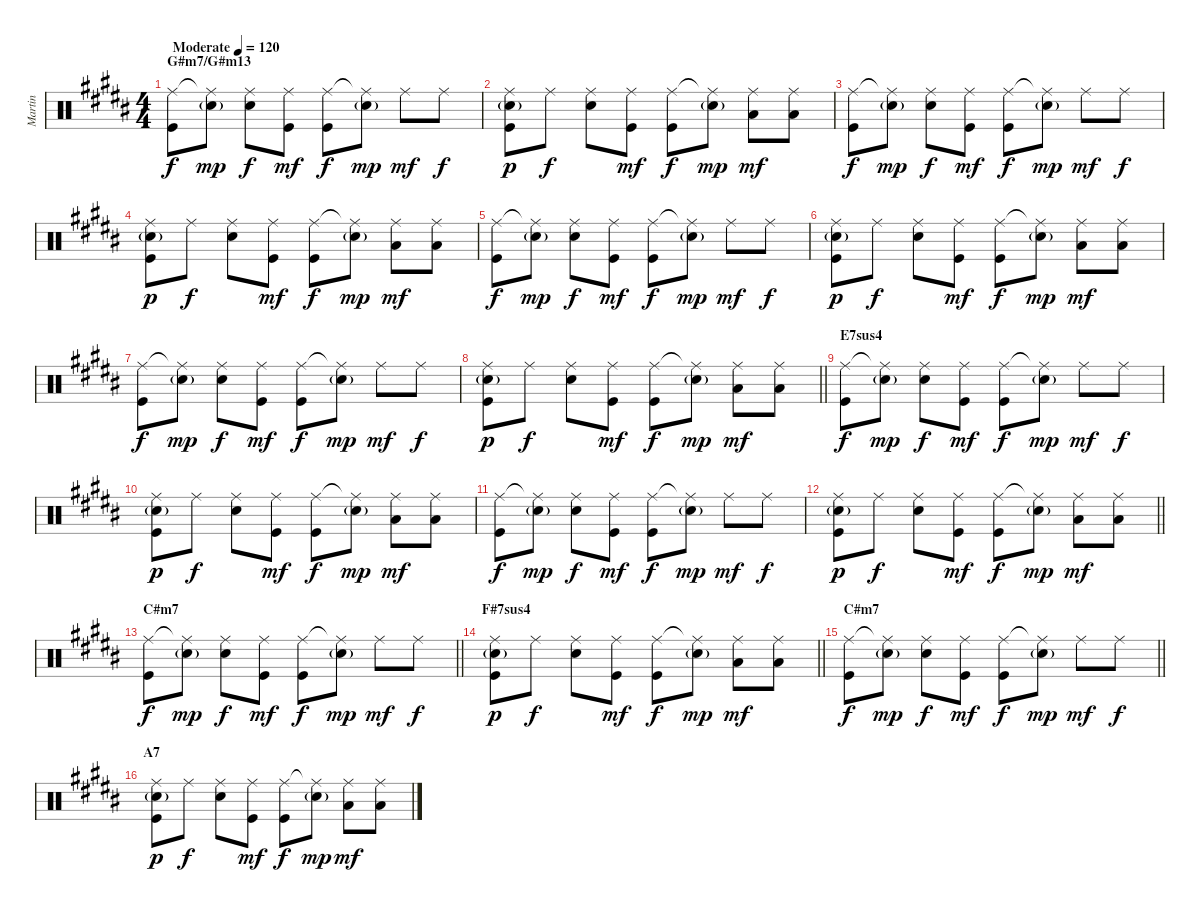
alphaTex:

\track ("Martin" "Martin") {instrument percussion}
\staff {score}
\articulation defaults
\ts (4 4)
\section ("" "G#m7/G#m13")
\tempo (120 "Moderate")
\clef neutral
\ks g#minor
("Ride (middle)" "Kick (hit)").8{dy f} ("Ride (middle)"{t} "Electric Snare (hit)"{g}).8{dy mp} ("Ride (middle)" "Electric Snare (hit)").8{dy f} ("Ride (middle)" "Kick (hit)").8{dy mf} ("Ride (middle)" "Kick (hit)").8{dy f} ("Ride (middle)"{t} "Electric Snare (hit)"{g}).8{dy mp} "Ride (middle)".8{dy mf} "Ride (middle)".8{dy f} |
("Ride (middle)" "Electric Snare (hit)"{g} "Kick (hit)").8{dy p} "Ride (middle)".8{dy f} ("Ride (middle)" "Electric Snare (hit)").8 ("Ride (middle)" "Kick (hit)").8{dy mf} ("Ride (middle)" "Kick (hit)").8{dy f} ("Ride (middle)"{t} "Electric Snare (hit)"{g}).8{dy mp} ("Ride (middle)" "Low Tom (hit)").8{dy mf} ("Ride (middle)" "Low Tom (hit)").8 |
("Ride (middle)" "Kick (hit)").8{dy f} ("Ride (middle)"{t} "Electric Snare (hit)"{g}).8{dy mp} ("Ride (middle)" "Electric Snare (hit)").8{dy f} ("Ride (middle)" "Kick (hit)").8{dy mf} ("Ride (middle)" "Kick (hit)").8{dy f} ("Ride (middle)"{t} "Electric Snare (hit)"{g}).8{dy mp} "Ride (middle)".8{dy mf} "Ride (middle)".8{dy f} |
("Ride (middle)" "Electric Snare (hit)"{g} "Kick (hit)").8{dy p} "Ride (middle)".8{dy f} ("Ride (middle)" "Electric Snare (hit)").8 ("Ride (middle)" "Kick (hit)").8{dy mf} ("Ride (middle)" "Kick (hit)").8{dy f} ("Ride (middle)"{t} "Electric Snare (hit)"{g}).8{dy mp} ("Ride (middle)" "Low Tom (hit)").8{dy mf} ("Ride (middle)" "Low Tom (hit)").8 |
("Ride (middle)" "Kick (hit)").8{dy f} ("Ride (middle)"{t} "Electric Snare (hit)"{g}).8{dy mp} ("Ride (middle)" "Electric Snare (hit)").8{dy f} ("Ride (middle)" "Kick (hit)").8{dy mf} ("Ride (middle)" "Kick (hit)").8{dy f} ("Ride (middle)"{t} "Electric Snare (hit)"{g}).8{dy mp} "Ride (middle)".8{dy mf} "Ride (middle)".8{dy f} |
("Ride (middle)" "Electric Snare (hit)"{g} "Kick (hit)").8{dy p} "Ride (middle)".8{dy f} ("Ride (middle)" "Electric Snare (hit)").8 ("Ride (middle)" "Kick (hit)").8{dy mf} ("Ride (middle)" "Kick (hit)").8{dy f} ("Ride (middle)"{t} "Electric Snare (hit)"{g}).8{dy mp} ("Ride (middle)" "Low Tom (hit)").8{dy mf} ("Ride (middle)" "Low Tom (hit)").8 |
("Ride (middle)" "Kick (hit)").8{dy f} ("Ride (middle)"{t} "Electric Snare (hit)"{g}).8{dy mp} ("Ride (middle)" "Electric Snare (hit)").8{dy f} ("Ride (middle)" "Kick (hit)").8{dy mf} ("Ride (middle)" "Kick (hit)").8{dy f} ("Ride (middle)"{t} "Electric Snare (hit)"{g}).8{dy mp} "Ride (middle)".8{dy mf} "Ride (middle)".8{dy f} |
\barLineRight lightlight
("Ride (middle)" "Electric Snare (hit)"{g} "Kick (hit)").8{dy p} "Ride (middle)".8{dy f} ("Ride (middle)" "Electric Snare (hit)").8 ("Ride (middle)" "Kick (hit)").8{dy mf} ("Ride (middle)" "Kick (hit)").8{dy f} ("Ride (middle)"{t} "Electric Snare (hit)"{g}).8{dy mp} ("Ride (middle)" "Low Tom (hit)").8{dy mf} ("Ride (middle)" "Low Tom (hit)").8 |
\section ("" "E7sus4")
("Ride (middle)" "Kick (hit)").8{dy f} ("Ride (middle)"{t} "Electric Snare (hit)"{g}).8{dy mp} ("Ride (middle)" "Electric Snare (hit)").8{dy f} ("Ride (middle)" "Kick (hit)").8{dy mf} ("Ride (middle)" "Kick (hit)").8{dy f} ("Ride (middle)"{t} "Electric Snare (hit)"{g}).8{dy mp} "Ride (middle)".8{dy mf} "Ride (middle)".8{dy f} |
("Ride (middle)" "Electric Snare (hit)"{g} "Kick (hit)").8{dy p} "Ride (middle)".8{dy f} ("Ride (middle)" "Electric Snare (hit)").8 ("Ride (middle)" "Kick (hit)").8{dy mf} ("Ride (middle)" "Kick (hit)").8{dy f} ("Ride (middle)"{t} "Electric Snare (hit)"{g}).8{dy mp} ("Ride (middle)" "Low Tom (hit)").8{dy mf} ("Ride (middle)" "Low Tom (hit)").8 |
("Ride (middle)" "Kick (hit)").8{dy f} ("Ride (middle)"{t} "Electric Snare (hit)"{g}).8{dy mp} ("Ride (middle)" "Electric Snare (hit)").8{dy f} ("Ride (middle)" "Kick (hit)").8{dy mf} ("Ride (middle)" "Kick (hit)").8{dy f} ("Ride (middle)"{t} "Electric Snare (hit)"{g}).8{dy mp} "Ride (middle)".8{dy mf} "Ride (middle)".8{dy f} |
\barLineRight lightlight
("Ride (middle)" "Electric Snare (hit)"{g} "Kick (hit)").8{dy p} "Ride (middle)".8{dy f} ("Ride (middle)" "Electric Snare (hit)").8 ("Ride (middle)" "Kick (hit)").8{dy mf} ("Ride (middle)" "Kick (hit)").8{dy f} ("Ride (middle)"{t} "Electric Snare (hit)"{g}).8{dy mp} ("Ride (middle)" "Low Tom (hit)").8{dy mf} ("Ride (middle)" "Low Tom (hit)").8 |
\section ("" "C#m7")
\barLineRight lightlight
("Ride (middle)" "Kick (hit)").8{dy f} ("Ride (middle)"{t} "Electric Snare (hit)"{g}).8{dy mp} ("Ride (middle)" "Electric Snare (hit)").8{dy f} ("Ride (middle)" "Kick (hit)").8{dy mf} ("Ride (middle)" "Kick (hit)").8{dy f} ("Ride (middle)"{t} "Electric Snare (hit)"{g}).8{dy mp} "Ride (middle)".8{dy mf} "Ride (middle)".8{dy f} |
\section ("" "F#7sus4")
\barLineRight lightlight
("Ride (middle)" "Electric Snare (hit)"{g} "Kick (hit)").8{dy p} "Ride (middle)".8{dy f} ("Ride (middle)" "Electric Snare (hit)").8 ("Ride (middle)" "Kick (hit)").8{dy mf} ("Ride (middle)" "Kick (hit)").8{dy f} ("Ride (middle)"{t} "Electric Snare (hit)"{g}).8{dy mp} ("Ride (middle)" "Low Tom (hit)").8{dy mf} ("Ride (middle)" "Low Tom (hit)").8 |
\section ("" "C#m7")
\barLineRight lightlight
("Ride (middle)" "Kick (hit)").8{dy f} ("Ride (middle)"{t} "Electric Snare (hit)"{g}).8{dy mp} ("Ride (middle)" "Electric Snare (hit)").8{dy f} ("Ride (middle)" "Kick (hit)").8{dy mf} ("Ride (middle)" "Kick (hit)").8{dy f} ("Ride (middle)"{t} "Electric Snare (hit)"{g}).8{dy mp} "Ride (middle)".8{dy mf} "Ride (middle)".8{dy f} |
\section ("" "A7")
("Ride (middle)" "Electric Snare (hit)"{g} "Kick (hit)").8{dy p} "Ride (middle)".8{dy f} ("Ride (middle)" "Electric Snare (hit)").8 ("Ride (middle)" "Kick (hit)").8{dy mf} ("Ride (middle)" "Kick (hit)").8{dy f} ("Ride (middle)"{t} "Electric Snare (hit)"{g}).8{dy mp} ("Ride (middle)" "Low Tom (hit)").8{dy mf} ("Ride (middle)" "Low Tom (hit)").8
